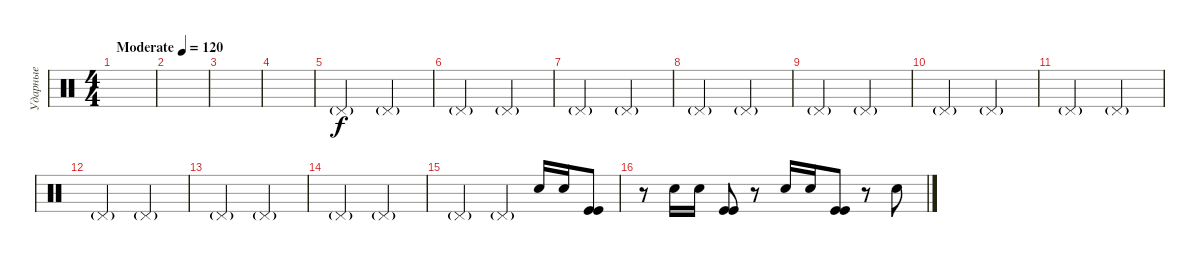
\track ("Ударные" "Ударные") {instrument percussion}
\staff {score}
\articulation defaults
\ts (4 4)
\tempo (120 "Moderate")
\clef neutral
\ks c
|
|
|
|
"Pedal Hi-Hat (hit)"{g}.2 "Pedal Hi-Hat (hit)"{g}.2 |
"Pedal Hi-Hat (hit)"{g}.2 "Pedal Hi-Hat (hit)"{g}.2 |
"Pedal Hi-Hat (hit)"{g}.2 "Pedal Hi-Hat (hit)"{g}.2 |
"Pedal Hi-Hat (hit)"{g}.2 "Pedal Hi-Hat (hit)"{g}.2 |
"Pedal Hi-Hat (hit)"{g}.2 "Pedal Hi-Hat (hit)"{g}.2 |
"Pedal Hi-Hat (hit)"{g}.2 "Pedal Hi-Hat (hit)"{g}.2 |
"Pedal Hi-Hat (hit)"{g}.2 "Pedal Hi-Hat (hit)"{g}.2 |
"Pedal Hi-Hat (hit)"{g}.2 "Pedal Hi-Hat (hit)"{g}.2 |
"Pedal Hi-Hat (hit)"{g}.2 "Pedal Hi-Hat (hit)"{g}.2 |
"Pedal Hi-Hat (hit)"{g}.2 "Pedal Hi-Hat (hit)"{g}.2 |
"Pedal Hi-Hat (hit)"{g}.2 "Pedal Hi-Hat (hit)"{g}.4 "Snare (hit) 2".16{dy f} "Snare (hit) 2".16 ("Kick (hit)" "Kick (hit)").8 |
r.8 "Snare (hit) 2".16 "Snare (hit) 2".16 ("Kick (hit)" "Kick (hit)").8 r.8 "Snare (hit) 2".16 "Snare (hit) 2".16 ("Kick (hit)" "Kick (hit)").8 r.8 "Snare (hit) 2".8
